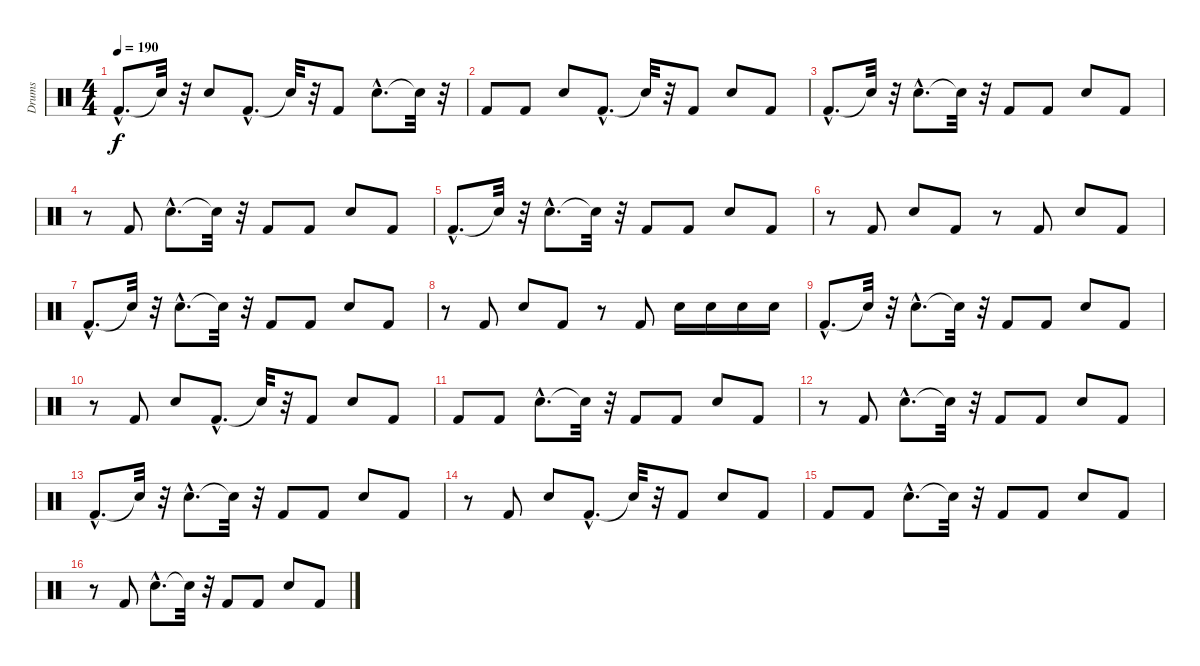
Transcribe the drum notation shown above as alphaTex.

\track ("Drums" "Drums") {instrument percussion}
\staff {score}
\articulation defaults
\ts (4 4)
\tempo 190
\clef neutral
\ks c "Kick (hit) 2"{hac}.8{d dy f} "Snare (hit)"{t}.32
r.32 "Electric Snare (hit)".8 "Kick (hit) 2"{hac}.8{d} "Snare (hit)"{t}.32 r.32 "Kick (hit) 2".8 "Electric Snare (hit)"{hac}.8{d} "Snare (hit)"{t}.32 r.32 |
"Kick (hit) 2".8 "Kick (hit) 2".8 "Electric Snare (hit)".8 "Kick (hit) 2"{hac}.8{d} "Snare (hit)"{t}.32 r.32 "Kick (hit) 2".8 "Electric Snare (hit)".8 "Kick (hit) 2".8 |
"Kick (hit) 2"{hac}.8{d} "Snare (hit)"{t}.32 r.32 "Electric Snare (hit)"{hac}.8{d} "Snare (hit)"{t}.32 r.32 "Kick (hit) 2".8 "Kick (hit) 2".8 "Electric Snare (hit)".8 "Kick (hit) 2".8 |
r.8 "Kick (hit) 2".8 "Electric Snare (hit)"{hac}.8{d} "Snare (hit)"{t}.32 r.32 "Kick (hit) 2".8 "Kick (hit) 2".8 "Electric Snare (hit)".8 "Kick (hit) 2".8 |
"Kick (hit) 2"{hac}.8{d} "Snare (hit)"{t}.32 r.32 "Electric Snare (hit)"{hac}.8{d} "Snare (hit)"{t}.32 r.32 "Kick (hit) 2".8 "Kick (hit) 2".8 "Electric Snare (hit)".8 "Kick (hit) 2".8 |
r.8 "Kick (hit) 2".8 "Electric Snare (hit)".8 "Kick (hit) 2".8 r.8 "Kick (hit) 2".8 "Electric Snare (hit)".8 "Kick (hit) 2".8 |
"Kick (hit) 2"{hac}.8{d} "Snare (hit)"{t}.32 r.32 "Electric Snare (hit)"{hac}.8{d} "Snare (hit)"{t}.32 r.32 "Kick (hit) 2".8 "Kick (hit) 2".8 "Electric Snare (hit)".8 "Kick (hit) 2".8 |
r.8 "Kick (hit) 2".8 "Electric Snare (hit)".8 "Kick (hit) 2".8 r.8 "Kick (hit) 2".8 "Electric Snare (hit)".16 "Electric Snare (hit)".16 "Electric Snare (hit)".16 "Electric Snare (hit)".16 |
"Kick (hit) 2"{hac}.8{d} "Snare (hit)"{t}.32 r.32 "Electric Snare (hit)"{hac}.8{d} "Snare (hit)"{t}.32 r.32 "Kick (hit) 2".8 "Kick (hit) 2".8 "Electric Snare (hit)".8 "Kick (hit) 2".8 |
r.8 "Kick (hit) 2".8 "Electric Snare (hit)".8 "Kick (hit) 2"{hac}.8{d} "Snare (hit)"{t}.32 r.32 "Kick (hit) 2".8 "Electric Snare (hit)".8 "Kick (hit) 2".8 |
"Kick (hit) 2".8 "Kick (hit) 2".8 "Electric Snare (hit)"{hac}.8{d} "Snare (hit)"{t}.32 r.32 "Kick (hit) 2".8 "Kick (hit) 2".8 "Electric Snare (hit)".8 "Kick (hit) 2".8 |
r.8 "Kick (hit) 2".8 "Electric Snare (hit)"{hac}.8{d} "Snare (hit)"{t}.32 r.32 "Kick (hit) 2".8 "Kick (hit) 2".8 "Electric Snare (hit)".8 "Kick (hit) 2".8 |
"Kick (hit) 2"{hac}.8{d} "Snare (hit)"{t}.32 r.32 "Electric Snare (hit)"{hac}.8{d} "Snare (hit)"{t}.32 r.32 "Kick (hit) 2".8 "Kick (hit) 2".8 "Electric Snare (hit)".8 "Kick (hit) 2".8 |
r.8 "Kick (hit) 2".8 "Electric Snare (hit)".8 "Kick (hit) 2"{hac}.8{d} "Snare (hit)"{t}.32 r.32 "Kick (hit) 2".8 "Electric Snare (hit)".8 "Kick (hit) 2".8 |
"Kick (hit) 2".8 "Kick (hit) 2".8 "Electric Snare (hit)"{hac}.8{d} "Snare (hit)"{t}.32 r.32 "Kick (hit) 2".8 "Kick (hit) 2".8 "Electric Snare (hit)".8 "Kick (hit) 2".8 |
r.8 "Kick (hit) 2".8 "Electric Snare (hit)"{hac}.8{d} "Snare (hit)"{t}.32 r.32 "Kick (hit) 2".8 "Kick (hit) 2".8 "Electric Snare (hit)".8 "Kick (hit) 2".8
